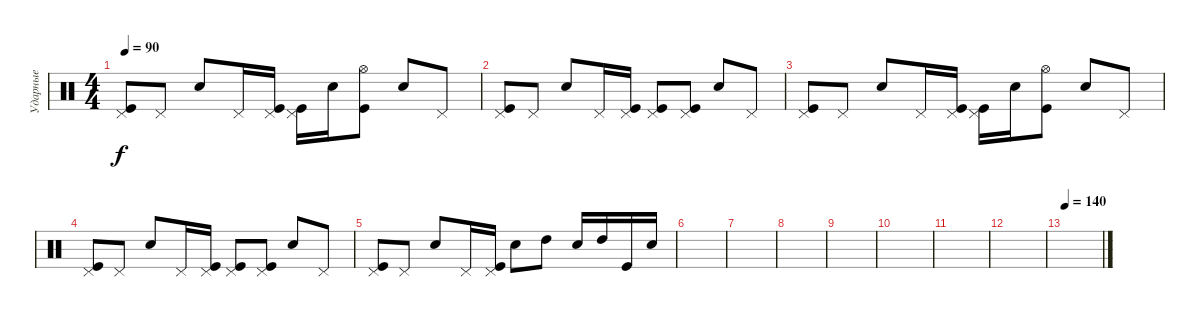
\track ("Ударные" "Ударные") {instrument percussion}
\staff {score}
\articulation defaults
\ts (4 4)
\tempo 90
\clef neutral
\ks c
("Kick (hit)" "Pedal Hi-Hat (hit)").8{dy f} "Pedal Hi-Hat (hit)".8 "Electric Snare (hit)".8 "Pedal Hi-Hat (hit)".16 ("Kick (hit)" "Pedal Hi-Hat (hit)").16 ("Kick (hit)" "Pedal Hi-Hat (hit)").16 "Electric Snare (hit)".16 ("Kick (hit)" "Hi-Hat (open)").8 "Electric Snare (hit)".8 "Pedal Hi-Hat (hit)".8 |
("Kick (hit)" "Pedal Hi-Hat (hit)").8 "Pedal Hi-Hat (hit)".8 "Electric Snare (hit)".8 "Pedal Hi-Hat (hit)".16 ("Kick (hit)" "Pedal Hi-Hat (hit)").16 ("Kick (hit)" "Pedal Hi-Hat (hit)").8 ("Kick (hit)" "Pedal Hi-Hat (hit)").8 "Electric Snare (hit)".8 "Pedal Hi-Hat (hit)".8 |
("Kick (hit)" "Pedal Hi-Hat (hit)").8 "Pedal Hi-Hat (hit)".8 "Electric Snare (hit)".8 "Pedal Hi-Hat (hit)".16 ("Kick (hit)" "Pedal Hi-Hat (hit)").16 ("Kick (hit)" "Pedal Hi-Hat (hit)").16 "Electric Snare (hit)".16 ("Kick (hit)" "Hi-Hat (open)").8 "Electric Snare (hit)".8 "Pedal Hi-Hat (hit)".8 |
("Kick (hit)" "Pedal Hi-Hat (hit)").8 "Pedal Hi-Hat (hit)".8 "Electric Snare (hit)".8 "Pedal Hi-Hat (hit)".16 ("Kick (hit)" "Pedal Hi-Hat (hit)").16 ("Kick (hit)" "Pedal Hi-Hat (hit)").8 ("Kick (hit)" "Pedal Hi-Hat (hit)").8 "Electric Snare (hit)".8 "Pedal Hi-Hat (hit)".8 |
("Kick (hit)" "Pedal Hi-Hat (hit)").8 "Pedal Hi-Hat (hit)".8 "Electric Snare (hit)".8 "Pedal Hi-Hat (hit)".16 ("Kick (hit)" "Pedal Hi-Hat (hit)").16 "Electric Snare (hit)".8 "High Tom (hit)".8 "Electric Snare (hit)".16 "High Tom (hit)".16 "Kick (hit)".16 "Electric Snare (hit)".16 |
|
|
|
|
|
|
|
\tempo 140
